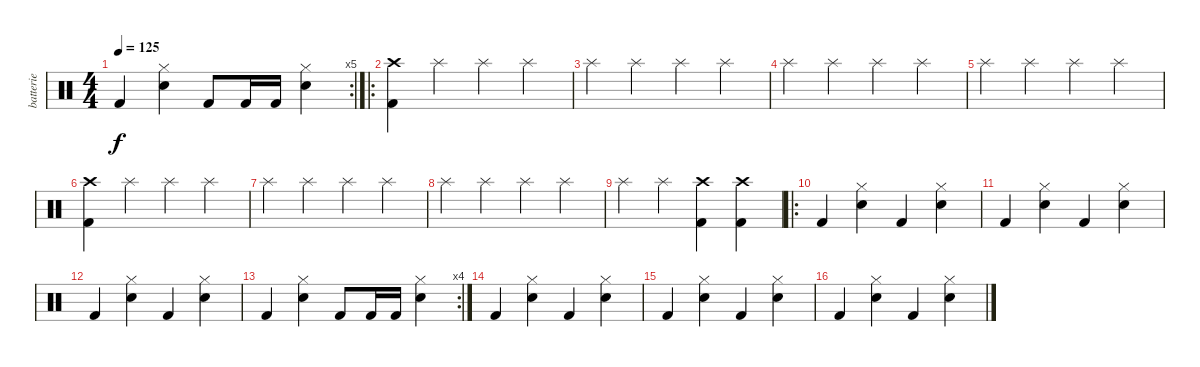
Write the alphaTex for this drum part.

\track ("batterie" "batterie") {instrument percussion}
\staff {score}
\articulation defaults
\rc 5
\ts (4 4)
\tempo 125
\clef neutral
\ks c "Kick (hit) 2".4{dy f}
("Hi-Hat (closed)" "Snare (hit) 2").4 "Kick (hit) 2".8 "Kick (hit) 2".16 "Kick (hit) 2".16 ("Hi-Hat (closed)" "Snare (hit) 2").4 |
\ro
("Crash high (hit)" "Kick (hit) 2").4 "Splash (hit)".4 "Splash (hit)".4 "Splash (hit)".4 |
"Splash (hit)".4 "Splash (hit)".4 "Splash (hit)".4 "Splash (hit)".4 |
"Splash (hit)".4 "Splash (hit)".4 "Splash (hit)".4 "Splash (hit)".4 |
"Splash (hit)".4 "Splash (hit)".4 "Splash (hit)".4 "Splash (hit)".4 |
("Crash high (hit)" "Kick (hit) 2").4 "Splash (hit)".4 "Splash (hit)".4 "Splash (hit)".4 |
"Splash (hit)".4 "Splash (hit)".4 "Splash (hit)".4 "Splash (hit)".4 |
"Splash (hit)".4 "Splash (hit)".4 "Splash (hit)".4 "Splash (hit)".4 |
"Splash (hit)".4 "Splash (hit)".4 ("Crash high (hit)" "Kick (hit) 2").4 ("Crash high (hit)" "Kick (hit) 2").4 |
\ro "Kick (hit) 2".4
("Hi-Hat (closed)" "Snare (hit) 2").4 "Kick (hit) 2".4 ("Hi-Hat (closed)" "Snare (hit) 2").4 |
"Kick (hit) 2".4 ("Hi-Hat (closed)" "Snare (hit) 2").4 "Kick (hit) 2".4 ("Hi-Hat (closed)" "Snare (hit) 2").4 |
"Kick (hit) 2".4 ("Hi-Hat (closed)" "Snare (hit) 2").4 "Kick (hit) 2".4 ("Hi-Hat (closed)" "Snare (hit) 2").4 |
\rc 4 "Kick (hit) 2".4
("Hi-Hat (closed)" "Snare (hit) 2").4 "Kick (hit) 2".8 "Kick (hit) 2".16 "Kick (hit) 2".16 ("Hi-Hat (closed)" "Snare (hit) 2").4 |
"Kick (hit) 2".4 ("Hi-Hat (closed)" "Snare (hit) 2").4 "Kick (hit) 2".4 ("Hi-Hat (closed)" "Snare (hit) 2").4 |
"Kick (hit) 2".4 ("Hi-Hat (closed)" "Snare (hit) 2").4 "Kick (hit) 2".4 ("Hi-Hat (closed)" "Snare (hit) 2").4 |
"Kick (hit) 2".4 ("Hi-Hat (closed)" "Snare (hit) 2").4 "Kick (hit) 2".4 ("Hi-Hat (closed)" "Snare (hit) 2").4
